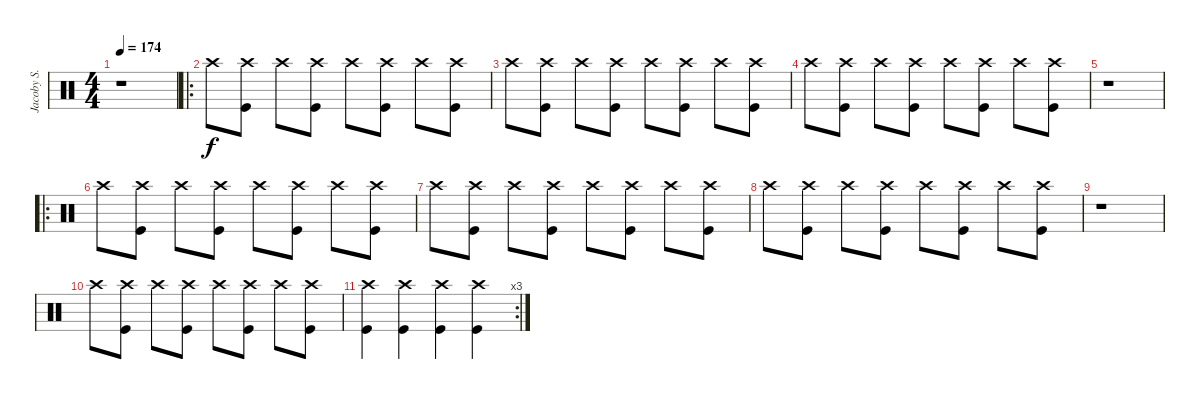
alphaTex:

\track ("Jacoby S.  (On Half of Drum kit)" "Jacoby S. ") {instrument percussion}
\staff {score}
\articulation defaults
\ts (4 4)
\tempo 174
\clef neutral
\ks c
r.1{dy f} |
\ro "Crash high (hit)".8
("Crash high (hit)" "Kick (hit)").8 "Crash high (hit)".8 ("Crash high (hit)" "Kick (hit)").8 "Crash high (hit)".8 ("Crash high (hit)" "Kick (hit)").8 "Crash high (hit)".8 ("Crash high (hit)" "Kick (hit)").8 |
"Crash high (hit)".8 ("Crash high (hit)" "Kick (hit)").8 "Crash high (hit)".8 ("Crash high (hit)" "Kick (hit)").8 "Crash high (hit)".8 ("Crash high (hit)" "Kick (hit)").8 "Crash high (hit)".8 ("Crash high (hit)" "Kick (hit)").8 |
"Crash high (hit)".8 ("Crash high (hit)" "Kick (hit)").8 "Crash high (hit)".8 ("Crash high (hit)" "Kick (hit)").8 "Crash high (hit)".8 ("Crash high (hit)" "Kick (hit)").8 "Crash high (hit)".8 ("Crash high (hit)" "Kick (hit)").8 |
r.1 |
\ro "Crash high (hit)".8
("Crash high (hit)" "Kick (hit)").8 "Crash high (hit)".8 ("Crash high (hit)" "Kick (hit)").8 "Crash high (hit)".8 ("Crash high (hit)" "Kick (hit)").8 "Crash high (hit)".8 ("Crash high (hit)" "Kick (hit)").8 |
"Crash high (hit)".8 ("Crash high (hit)" "Kick (hit)").8 "Crash high (hit)".8 ("Crash high (hit)" "Kick (hit)").8 "Crash high (hit)".8 ("Crash high (hit)" "Kick (hit)").8 "Crash high (hit)".8 ("Crash high (hit)" "Kick (hit)").8 |
"Crash high (hit)".8 ("Crash high (hit)" "Kick (hit)").8 "Crash high (hit)".8 ("Crash high (hit)" "Kick (hit)").8 "Crash high (hit)".8 ("Crash high (hit)" "Kick (hit)").8 "Crash high (hit)".8 ("Crash high (hit)" "Kick (hit)").8 |
r.1 |
"Crash high (hit)".8 ("Crash high (hit)" "Kick (hit)").8 "Crash high (hit)".8 ("Crash high (hit)" "Kick (hit)").8 "Crash high (hit)".8 ("Crash high (hit)" "Kick (hit)").8 "Crash high (hit)".8 ("Crash high (hit)" "Kick (hit)").8 |
\rc 3
("Crash high (hit)" "Kick (hit)").4 ("Crash high (hit)" "Kick (hit)").4 ("Crash high (hit)" "Kick (hit)").4 ("Crash high (hit)" "Kick (hit)").4
